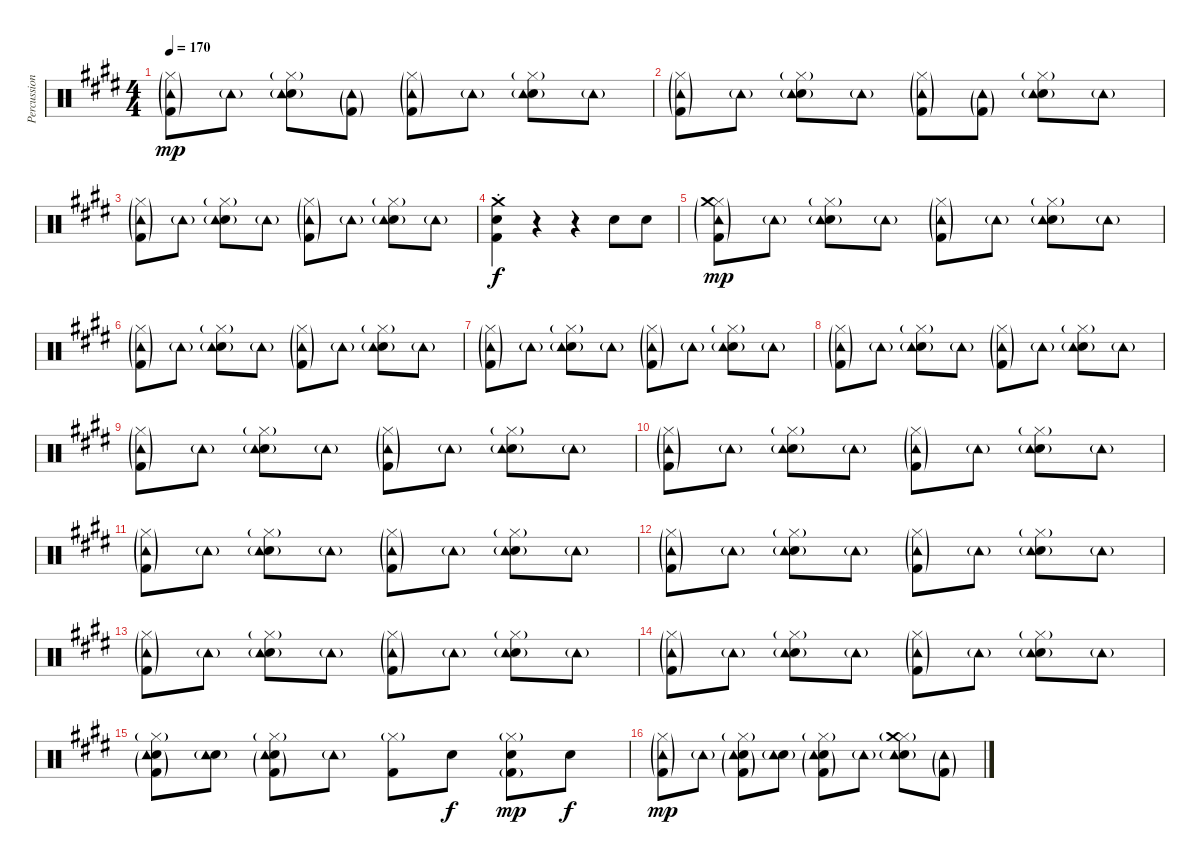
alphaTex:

\track ("Percussion" "Percussion") {instrument percussion}
\staff {score}
\articulation defaults
\ts (4 4)
\tempo 170
\clef neutral
\ks e
("Hi-Hat (closed)"{g} "Kick (hit) 2"{g} "Tambourine (hit)"{g}).8{dy mp} "Tambourine (hit)"{g}.8 ("Hi-Hat (closed)"{g} "Snare (hit) 2" "Tambourine (hit)"{g}).8 ("Kick (hit) 2"{g} "Tambourine (hit)"{g}).8 ("Hi-Hat (closed)"{g} "Kick (hit) 2"{g} "Tambourine (hit)"{g}).8 "Tambourine (hit)"{g}.8 ("Hi-Hat (closed)"{g} "Snare (hit) 2" "Tambourine (hit)"{g}).8 "Tambourine (hit)"{g}.8 |
("Hi-Hat (closed)"{g} "Kick (hit) 2"{g} "Tambourine (hit)"{g}).8 "Tambourine (hit)"{g}.8 ("Hi-Hat (closed)"{g} "Snare (hit) 2" "Tambourine (hit)"{g}).8 "Tambourine (hit)"{g}.8 ("Hi-Hat (closed)"{g} "Kick (hit) 2"{g} "Tambourine (hit)"{g}).8 ("Kick (hit) 2"{g} "Tambourine (hit)"{g}).8 ("Hi-Hat (closed)"{g} "Snare (hit) 2" "Tambourine (hit)"{g}).8 "Tambourine (hit)"{g}.8 |
("Hi-Hat (closed)"{g} "Kick (hit) 2"{g} "Tambourine (hit)"{g}).8 "Tambourine (hit)"{g}.8 ("Hi-Hat (closed)"{g} "Snare (hit) 2" "Tambourine (hit)"{g}).8 "Tambourine (hit)"{g}.8 ("Hi-Hat (closed)"{g} "Kick (hit) 2"{g} "Tambourine (hit)"{g}).8 "Tambourine (hit)"{g}.8 ("Hi-Hat (closed)"{g} "Snare (hit) 2" "Tambourine (hit)"{g}).8 "Tambourine (hit)"{g}.8 |
("Crash medium (hit)"{st} "Snare (hit) 2" "Kick (hit) 2").4{dy f} r.4 r.4 "Snare (hit) 2".8 "Snare (hit) 2".8 |
("Hi-Hat (closed)"{g} "Crash medium (hit)"{g} "Kick (hit) 2"{g} "Tambourine (hit)"{g}).8{dy mp} "Tambourine (hit)"{g}.8 ("Hi-Hat (closed)"{g} "Snare (hit) 2" "Tambourine (hit)"{g}).8 "Tambourine (hit)"{g}.8 ("Hi-Hat (closed)"{g} "Kick (hit) 2"{g} "Tambourine (hit)"{g}).8 "Tambourine (hit)"{g}.8 ("Hi-Hat (closed)"{g} "Snare (hit) 2" "Tambourine (hit)"{g}).8 "Tambourine (hit)"{g}.8 |
("Hi-Hat (closed)"{g} "Kick (hit) 2"{g} "Tambourine (hit)"{g}).8 "Tambourine (hit)"{g}.8 ("Hi-Hat (closed)"{g} "Snare (hit) 2" "Tambourine (hit)"{g}).8 "Tambourine (hit)"{g}.8 ("Hi-Hat (closed)"{g} "Kick (hit) 2"{g} "Tambourine (hit)"{g}).8 "Tambourine (hit)"{g}.8 ("Hi-Hat (closed)"{g} "Snare (hit) 2" "Tambourine (hit)"{g}).8 "Tambourine (hit)"{g}.8 |
("Hi-Hat (closed)"{g} "Kick (hit) 2"{g} "Tambourine (hit)"{g}).8 "Tambourine (hit)"{g}.8 ("Hi-Hat (closed)"{g} "Snare (hit) 2" "Tambourine (hit)"{g}).8 "Tambourine (hit)"{g}.8 ("Hi-Hat (closed)"{g} "Kick (hit) 2"{g} "Tambourine (hit)"{g}).8 "Tambourine (hit)"{g}.8 ("Hi-Hat (closed)"{g} "Snare (hit) 2" "Tambourine (hit)"{g}).8 "Tambourine (hit)"{g}.8 |
("Hi-Hat (closed)"{g} "Kick (hit) 2"{g} "Tambourine (hit)"{g}).8 "Tambourine (hit)"{g}.8 ("Hi-Hat (closed)"{g} "Snare (hit) 2" "Tambourine (hit)"{g}).8 "Tambourine (hit)"{g}.8 ("Hi-Hat (closed)"{g} "Kick (hit) 2"{g} "Tambourine (hit)"{g}).8 "Tambourine (hit)"{g}.8 ("Hi-Hat (closed)"{g} "Snare (hit) 2" "Tambourine (hit)"{g}).8 "Tambourine (hit)"{g}.8 |
("Hi-Hat (closed)"{g} "Kick (hit) 2"{g} "Tambourine (hit)"{g}).8 "Tambourine (hit)"{g}.8 ("Hi-Hat (closed)"{g} "Snare (hit) 2" "Tambourine (hit)"{g}).8 "Tambourine (hit)"{g}.8 ("Hi-Hat (closed)"{g} "Kick (hit) 2"{g} "Tambourine (hit)"{g}).8 "Tambourine (hit)"{g}.8 ("Hi-Hat (closed)"{g} "Snare (hit) 2" "Tambourine (hit)"{g}).8 "Tambourine (hit)"{g}.8 |
("Hi-Hat (closed)"{g} "Kick (hit) 2"{g} "Tambourine (hit)"{g}).8 "Tambourine (hit)"{g}.8 ("Hi-Hat (closed)"{g} "Snare (hit) 2" "Tambourine (hit)"{g}).8 "Tambourine (hit)"{g}.8 ("Hi-Hat (closed)"{g} "Kick (hit) 2"{g} "Tambourine (hit)"{g}).8 "Tambourine (hit)"{g}.8 ("Hi-Hat (closed)"{g} "Snare (hit) 2" "Tambourine (hit)"{g}).8 "Tambourine (hit)"{g}.8 |
("Hi-Hat (closed)"{g} "Kick (hit) 2"{g} "Tambourine (hit)"{g}).8 "Tambourine (hit)"{g}.8 ("Hi-Hat (closed)"{g} "Snare (hit) 2" "Tambourine (hit)"{g}).8 "Tambourine (hit)"{g}.8 ("Hi-Hat (closed)"{g} "Kick (hit) 2"{g} "Tambourine (hit)"{g}).8 "Tambourine (hit)"{g}.8 ("Hi-Hat (closed)"{g} "Snare (hit) 2" "Tambourine (hit)"{g}).8 "Tambourine (hit)"{g}.8 |
("Hi-Hat (closed)"{g} "Kick (hit) 2"{g} "Tambourine (hit)"{g}).8 "Tambourine (hit)"{g}.8 ("Hi-Hat (closed)"{g} "Snare (hit) 2" "Tambourine (hit)"{g}).8 "Tambourine (hit)"{g}.8 ("Hi-Hat (closed)"{g} "Kick (hit) 2"{g} "Tambourine (hit)"{g}).8 "Tambourine (hit)"{g}.8 ("Hi-Hat (closed)"{g} "Snare (hit) 2" "Tambourine (hit)"{g}).8 "Tambourine (hit)"{g}.8 |
("Hi-Hat (closed)"{g} "Kick (hit) 2"{g} "Tambourine (hit)"{g}).8 "Tambourine (hit)"{g}.8 ("Hi-Hat (closed)"{g} "Snare (hit) 2" "Tambourine (hit)"{g}).8 "Tambourine (hit)"{g}.8 ("Hi-Hat (closed)"{g} "Kick (hit) 2"{g} "Tambourine (hit)"{g}).8 "Tambourine (hit)"{g}.8 ("Hi-Hat (closed)"{g} "Snare (hit) 2" "Tambourine (hit)"{g}).8 "Tambourine (hit)"{g}.8 |
("Hi-Hat (closed)"{g} "Kick (hit) 2"{g} "Tambourine (hit)"{g}).8 "Tambourine (hit)"{g}.8 ("Hi-Hat (closed)"{g} "Snare (hit) 2" "Tambourine (hit)"{g}).8 "Tambourine (hit)"{g}.8 ("Hi-Hat (closed)"{g} "Kick (hit) 2"{g} "Tambourine (hit)"{g}).8 "Tambourine (hit)"{g}.8 ("Hi-Hat (closed)"{g} "Snare (hit) 2" "Tambourine (hit)"{g}).8 "Tambourine (hit)"{g}.8 |
("Hi-Hat (closed)"{g} "Snare (hit) 2" "Tambourine (hit)"{g} "Kick (hit) 2"{g}).8 ("Snare (hit) 2" "Tambourine (hit)"{g}).8 ("Hi-Hat (closed)"{g} "Snare (hit) 2" "Tambourine (hit)"{g} "Kick (hit) 2"{g}).8 "Tambourine (hit)"{g}.8 ("Hi-Hat (closed)"{g} "Kick (hit) 2").8 "Snare (hit) 2".8{dy f} ("Hi-Hat (closed)"{g} "Snare (hit) 2" "Kick (hit) 2"{g}).8{dy mp} "Snare (hit) 2".8{dy f} |
("Hi-Hat (closed)"{g} "Kick (hit) 2"{g} "Tambourine (hit)"{g}).8{dy mp} "Tambourine (hit)"{g}.8 ("Hi-Hat (closed)"{g} "Snare (hit) 2" "Tambourine (hit)"{g} "Kick (hit) 2"{g}).8 ("Snare (hit) 2" "Tambourine (hit)"{g}).8 ("Hi-Hat (closed)"{g} "Snare (hit) 2" "Tambourine (hit)"{g} "Kick (hit) 2"{g}).8 "Tambourine (hit)"{g}.8 ("Hi-Hat (closed)"{g} "Crash medium (hit)" "Snare (hit) 2" "Tambourine (hit)"{g}).8 ("Tambourine (hit)"{g} "Kick (hit) 2"{g}).8
